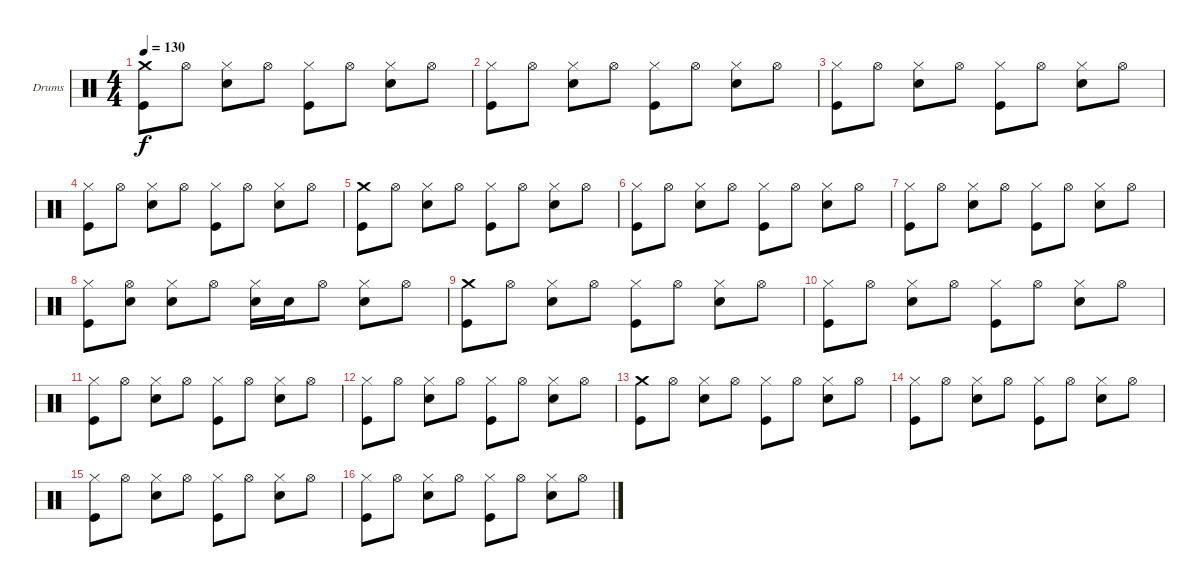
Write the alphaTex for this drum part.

\bracketExtendMode groupsimilarinstruments
\firstSystemTrackNameOrientation horizontal
\otherSystemsTrackNameOrientation horizontal
\track ("Drumkit" "Drums") {instrument percussion}
\staff {score}
\articulation defaults
\ts (4 4)
\tempo 130
\clef neutral
\ks c
("Crash medium (hit)" "Kick (hit)").8{dy f} "Hi-Hat (open)".8 ("Hi-Hat (closed)" "Snare (hit) 2").8 "Hi-Hat (open)".8 ("Hi-Hat (closed)" "Kick (hit)").8 "Hi-Hat (open)".8 ("Hi-Hat (closed)" "Snare (hit) 2").8 "Hi-Hat (open)".8 |
("Hi-Hat (closed)" "Kick (hit)").8 "Hi-Hat (open)".8 ("Hi-Hat (closed)" "Snare (hit) 2").8 "Hi-Hat (open)".8 ("Hi-Hat (closed)" "Kick (hit)").8 "Hi-Hat (open)".8 ("Hi-Hat (closed)" "Snare (hit) 2").8 "Hi-Hat (open)".8 |
("Hi-Hat (closed)" "Kick (hit)").8 "Hi-Hat (open)".8 ("Hi-Hat (closed)" "Snare (hit) 2").8 "Hi-Hat (open)".8 ("Hi-Hat (closed)" "Kick (hit)").8 "Hi-Hat (open)".8 ("Hi-Hat (closed)" "Snare (hit) 2").8 "Hi-Hat (open)".8 |
("Hi-Hat (closed)" "Kick (hit)").8 "Hi-Hat (open)".8 ("Hi-Hat (closed)" "Snare (hit) 2").8 "Hi-Hat (open)".8 ("Hi-Hat (closed)" "Kick (hit)").8 "Hi-Hat (open)".8 ("Hi-Hat (closed)" "Snare (hit) 2").8 "Hi-Hat (open)".8 |
("Crash medium (hit)" "Kick (hit)").8 "Hi-Hat (open)".8 ("Hi-Hat (closed)" "Snare (hit) 2").8 "Hi-Hat (open)".8 ("Hi-Hat (closed)" "Kick (hit)").8 "Hi-Hat (open)".8 ("Hi-Hat (closed)" "Snare (hit) 2").8 "Hi-Hat (open)".8 |
("Hi-Hat (closed)" "Kick (hit)").8 "Hi-Hat (open)".8 ("Hi-Hat (closed)" "Snare (hit) 2").8 "Hi-Hat (open)".8 ("Hi-Hat (closed)" "Kick (hit)").8 "Hi-Hat (open)".8 ("Hi-Hat (closed)" "Snare (hit) 2").8 "Hi-Hat (open)".8 |
("Hi-Hat (closed)" "Kick (hit)").8 "Hi-Hat (open)".8 ("Hi-Hat (closed)" "Snare (hit) 2").8 "Hi-Hat (open)".8 ("Hi-Hat (closed)" "Kick (hit)").8 "Hi-Hat (open)".8 ("Hi-Hat (closed)" "Snare (hit) 2").8 "Hi-Hat (open)".8 |
("Hi-Hat (closed)" "Kick (hit)").8 ("Hi-Hat (open)" "Snare (hit) 2").8 ("Hi-Hat (closed)" "Snare (hit) 2").8 "Hi-Hat (open)".8 ("Hi-Hat (closed)" "Snare (hit) 2").16 "Snare (hit) 2".16 "Hi-Hat (open)".8 ("Hi-Hat (closed)" "Snare (hit) 2").8 "Hi-Hat (open)".8 |
("Crash medium (hit)" "Kick (hit)").8 "Hi-Hat (open)".8 ("Hi-Hat (closed)" "Snare (hit) 2").8 "Hi-Hat (open)".8 ("Hi-Hat (closed)" "Kick (hit)").8 "Hi-Hat (open)".8 ("Hi-Hat (closed)" "Snare (hit) 2").8 "Hi-Hat (open)".8 |
("Hi-Hat (closed)" "Kick (hit)").8 "Hi-Hat (open)".8 ("Hi-Hat (closed)" "Snare (hit) 2").8 "Hi-Hat (open)".8 ("Hi-Hat (closed)" "Kick (hit)").8 "Hi-Hat (open)".8 ("Hi-Hat (closed)" "Snare (hit) 2").8 "Hi-Hat (open)".8 |
("Hi-Hat (closed)" "Kick (hit)").8 "Hi-Hat (open)".8 ("Hi-Hat (closed)" "Snare (hit) 2").8 "Hi-Hat (open)".8 ("Hi-Hat (closed)" "Kick (hit)").8 "Hi-Hat (open)".8 ("Hi-Hat (closed)" "Snare (hit) 2").8 "Hi-Hat (open)".8 |
("Hi-Hat (closed)" "Kick (hit)").8 "Hi-Hat (open)".8 ("Hi-Hat (closed)" "Snare (hit) 2").8 "Hi-Hat (open)".8 ("Hi-Hat (closed)" "Kick (hit)").8 "Hi-Hat (open)".8 ("Hi-Hat (closed)" "Snare (hit) 2").8 "Hi-Hat (open)".8 |
("Crash medium (hit)" "Kick (hit)").8 "Hi-Hat (open)".8 ("Hi-Hat (closed)" "Snare (hit) 2").8 "Hi-Hat (open)".8 ("Hi-Hat (closed)" "Kick (hit)").8 "Hi-Hat (open)".8 ("Hi-Hat (closed)" "Snare (hit) 2").8 "Hi-Hat (open)".8 |
("Hi-Hat (closed)" "Kick (hit)").8 "Hi-Hat (open)".8 ("Hi-Hat (closed)" "Snare (hit) 2").8 "Hi-Hat (open)".8 ("Hi-Hat (closed)" "Kick (hit)").8 "Hi-Hat (open)".8 ("Hi-Hat (closed)" "Snare (hit) 2").8 "Hi-Hat (open)".8 |
("Hi-Hat (closed)" "Kick (hit)").8 "Hi-Hat (open)".8 ("Hi-Hat (closed)" "Snare (hit) 2").8 "Hi-Hat (open)".8 ("Hi-Hat (closed)" "Kick (hit)").8 "Hi-Hat (open)".8 ("Hi-Hat (closed)" "Snare (hit) 2").8 "Hi-Hat (open)".8 |
("Hi-Hat (closed)" "Kick (hit)").8 "Hi-Hat (open)".8 ("Hi-Hat (closed)" "Snare (hit) 2").8 "Hi-Hat (open)".8 ("Hi-Hat (closed)" "Kick (hit)").8 "Hi-Hat (open)".8 ("Hi-Hat (closed)" "Snare (hit) 2").8 "Hi-Hat (open)".8
